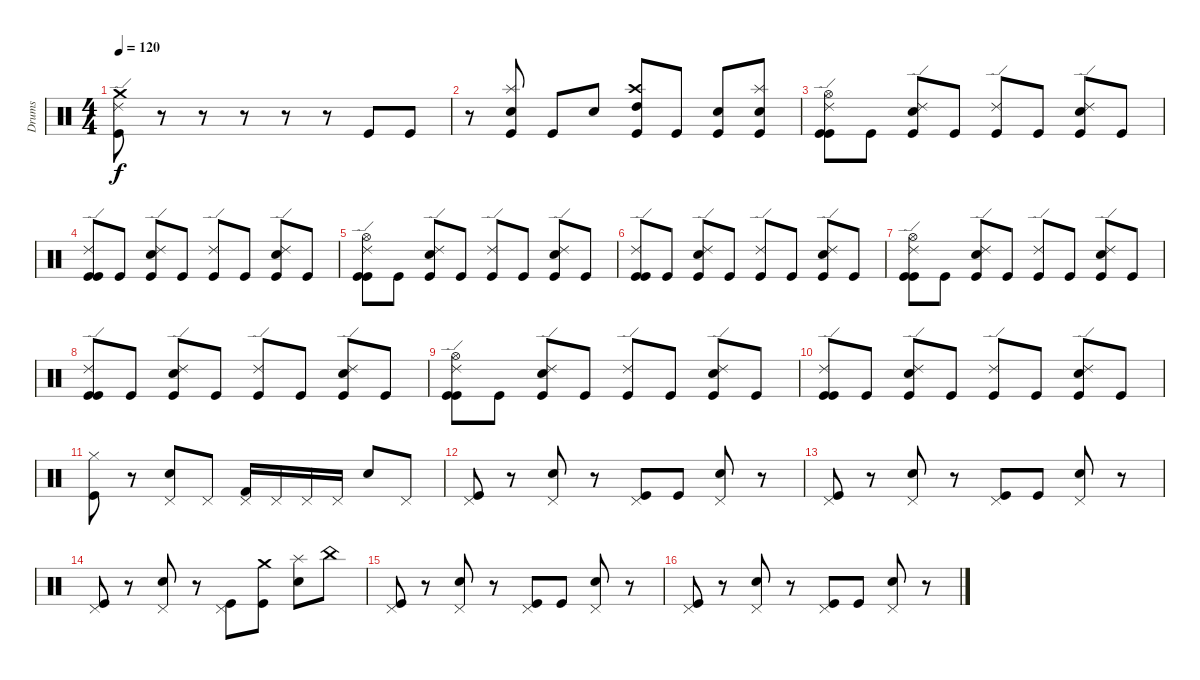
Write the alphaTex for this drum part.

\track ("Drums" "Drums") {instrument percussion}
\staff {score}
\articulation defaults
\ts (4 4)
\tempo 120
\clef neutral
\ks c
("Crash medium (hit)" "Ride (edge) 2" "Kick (hit)").8{dy f} r.8 r.8 r.8 r.8 r.8 "Kick (hit)".8 "Kick (hit)".8 |
r.8 ("Splash (hit)" "Snare (hit) 2" "Kick (hit)").8 "Kick (hit)".8 "Snare (hit) 2".8 ("Crash high (hit)" "High Tom (hit)" "Kick (hit)").8 "Kick (hit)".8 ("Snare (hit) 2" "Kick (hit)").8 ("Splash (hit)" "Snare (hit) 2" "Kick (hit)").8 |
("Hi-Hat (open)" "Ride (edge) 2" "Kick (hit)" "Kick (hit)").8 "Kick (hit)".8 ("Ride (edge) 2" "Snare (hit) 2" "Kick (hit)").8 "Kick (hit)".8 ("Ride (edge) 2" "Kick (hit)").8 "Kick (hit)".8 ("Ride (edge) 2" "Snare (hit) 2" "Kick (hit)").8 "Kick (hit)".8 |
("Ride (edge) 2" "Kick (hit)" "Kick (hit)").8 "Kick (hit)".8 ("Ride (edge) 2" "Snare (hit) 2" "Kick (hit)").8 "Kick (hit)".8 ("Ride (edge) 2" "Kick (hit)").8 "Kick (hit)".8 ("Ride (edge) 2" "Snare (hit) 2" "Kick (hit)").8 "Kick (hit)".8 |
("Hi-Hat (open)" "Ride (edge) 2" "Kick (hit)" "Kick (hit)").8 "Kick (hit)".8 ("Ride (edge) 2" "Snare (hit) 2" "Kick (hit)").8 "Kick (hit)".8 ("Ride (edge) 2" "Kick (hit)").8 "Kick (hit)".8 ("Ride (edge) 2" "Snare (hit) 2" "Kick (hit)").8 "Kick (hit)".8 |
("Ride (edge) 2" "Kick (hit)" "Kick (hit)").8 "Kick (hit)".8 ("Ride (edge) 2" "Snare (hit) 2" "Kick (hit)").8 "Kick (hit)".8 ("Ride (edge) 2" "Kick (hit)").8 "Kick (hit)".8 ("Ride (edge) 2" "Snare (hit) 2" "Kick (hit)").8 "Kick (hit)".8 |
("Hi-Hat (open)" "Ride (edge) 2" "Kick (hit)" "Kick (hit)").8 "Kick (hit)".8 ("Ride (edge) 2" "Snare (hit) 2" "Kick (hit)").8 "Kick (hit)".8 ("Ride (edge) 2" "Kick (hit)").8 "Kick (hit)".8 ("Ride (edge) 2" "Snare (hit) 2" "Kick (hit)").8 "Kick (hit)".8 |
("Ride (edge) 2" "Kick (hit)" "Kick (hit)").8 "Kick (hit)".8 ("Ride (edge) 2" "Snare (hit) 2" "Kick (hit)").8 "Kick (hit)".8 ("Ride (edge) 2" "Kick (hit)").8 "Kick (hit)".8 ("Ride (edge) 2" "Snare (hit) 2" "Kick (hit)").8 "Kick (hit)".8 |
("Hi-Hat (open)" "Ride (edge) 2" "Kick (hit)" "Kick (hit)").8 "Kick (hit)".8 ("Ride (edge) 2" "Snare (hit) 2" "Kick (hit)").8 "Kick (hit)".8 ("Ride (edge) 2" "Kick (hit)").8 "Kick (hit)".8 ("Ride (edge) 2" "Snare (hit) 2" "Kick (hit)").8 "Kick (hit)".8 |
("Ride (edge) 2" "Kick (hit)" "Kick (hit)").8 "Kick (hit)".8 ("Ride (edge) 2" "Snare (hit) 2" "Kick (hit)").8 "Kick (hit)".8 ("Ride (edge) 2" "Kick (hit)").8 "Kick (hit)".8 ("Ride (edge) 2" "Snare (hit) 2" "Kick (hit)").8 "Kick (hit)".8 |
("Hi-Hat (closed)" "Kick (hit)").8 r.8 ("Pedal Hi-Hat (hit)" "Snare (hit) 2").8 "Pedal Hi-Hat (hit)".8 ("Pedal Hi-Hat (hit)" "Kick (hit) 2").16 "Pedal Hi-Hat (hit)".16 "Pedal Hi-Hat (hit)".16 "Pedal Hi-Hat (hit)".16 "Snare (hit) 2".8 "Pedal Hi-Hat (hit)".8 |
("Pedal Hi-Hat (hit)" "Kick (hit)").8 r.8 ("Pedal Hi-Hat (hit)" "Snare (hit) 2").8 r.8 ("Pedal Hi-Hat (hit)" "Kick (hit)").8 "Kick (hit)".8 ("Pedal Hi-Hat (hit)" "Snare (hit) 2").8 r.8 |
("Pedal Hi-Hat (hit)" "Kick (hit)").8 r.8 ("Pedal Hi-Hat (hit)" "Snare (hit) 2").8 r.8 ("Pedal Hi-Hat (hit)" "Kick (hit)").8 "Kick (hit)".8 ("Pedal Hi-Hat (hit)" "Snare (hit) 2").8 r.8 |
("Pedal Hi-Hat (hit)" "Kick (hit)").8 r.8 ("Pedal Hi-Hat (hit)" "Snare (hit) 2").8 r.8 ("Pedal Hi-Hat (hit)" "Kick (hit)").8 ("Crash medium (hit)" "Kick (hit)").8 ("Splash (hit)" "Snare (hit) 2").8 "China (hit)".8 |
("Pedal Hi-Hat (hit)" "Kick (hit)").8 r.8 ("Pedal Hi-Hat (hit)" "Snare (hit) 2").8 r.8 ("Pedal Hi-Hat (hit)" "Kick (hit)").8 "Kick (hit)".8 ("Pedal Hi-Hat (hit)" "Snare (hit) 2").8 r.8 |
("Pedal Hi-Hat (hit)" "Kick (hit)").8 r.8 ("Pedal Hi-Hat (hit)" "Snare (hit) 2").8 r.8 ("Pedal Hi-Hat (hit)" "Kick (hit)").8 "Kick (hit)".8 ("Pedal Hi-Hat (hit)" "Snare (hit) 2").8 r.8
